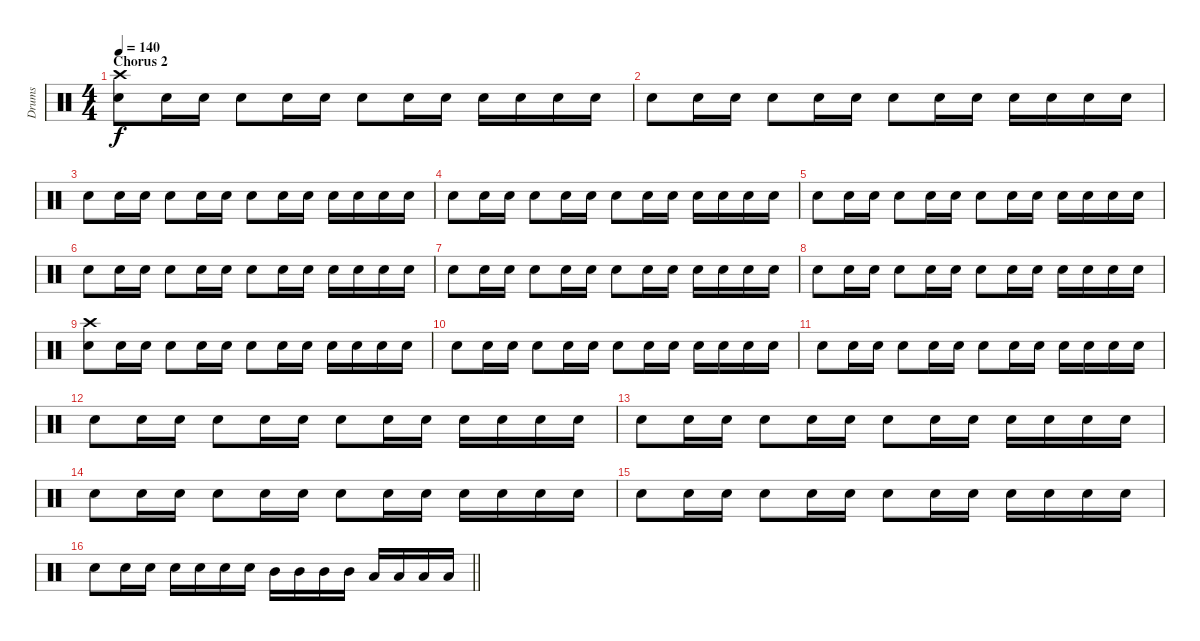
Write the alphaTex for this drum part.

\track ("Drums" "Drums") {instrument percussion}
\staff {score}
\articulation defaults
\ts (4 4)
\section ("" "Chorus 2")
\tempo 140
\clef neutral
\ks c
("Crash high (hit)" "Snare (hit) 2").8{dy f} "Snare (hit) 2".16 "Snare (hit) 2".16 "Snare (hit) 2".8 "Snare (hit) 2".16 "Snare (hit) 2".16 "Snare (hit) 2".8 "Snare (hit) 2".16 "Snare (hit) 2".16 "Snare (hit) 2".16 "Snare (hit) 2".16 "Snare (hit) 2".16 "Snare (hit) 2".16 |
"Snare (hit) 2".8 "Snare (hit) 2".16 "Snare (hit) 2".16 "Snare (hit) 2".8 "Snare (hit) 2".16 "Snare (hit) 2".16 "Snare (hit) 2".8 "Snare (hit) 2".16 "Snare (hit) 2".16 "Snare (hit) 2".16 "Snare (hit) 2".16 "Snare (hit) 2".16 "Snare (hit) 2".16 |
"Snare (hit) 2".8 "Snare (hit) 2".16 "Snare (hit) 2".16 "Snare (hit) 2".8 "Snare (hit) 2".16 "Snare (hit) 2".16 "Snare (hit) 2".8 "Snare (hit) 2".16 "Snare (hit) 2".16 "Snare (hit) 2".16 "Snare (hit) 2".16 "Snare (hit) 2".16 "Snare (hit) 2".16 |
"Snare (hit) 2".8 "Snare (hit) 2".16 "Snare (hit) 2".16 "Snare (hit) 2".8 "Snare (hit) 2".16 "Snare (hit) 2".16 "Snare (hit) 2".8 "Snare (hit) 2".16 "Snare (hit) 2".16 "Snare (hit) 2".16 "Snare (hit) 2".16 "Snare (hit) 2".16 "Snare (hit) 2".16 |
"Snare (hit) 2".8 "Snare (hit) 2".16 "Snare (hit) 2".16 "Snare (hit) 2".8 "Snare (hit) 2".16 "Snare (hit) 2".16 "Snare (hit) 2".8 "Snare (hit) 2".16 "Snare (hit) 2".16 "Snare (hit) 2".16 "Snare (hit) 2".16 "Snare (hit) 2".16 "Snare (hit) 2".16 |
"Snare (hit) 2".8 "Snare (hit) 2".16 "Snare (hit) 2".16 "Snare (hit) 2".8 "Snare (hit) 2".16 "Snare (hit) 2".16 "Snare (hit) 2".8 "Snare (hit) 2".16 "Snare (hit) 2".16 "Snare (hit) 2".16 "Snare (hit) 2".16 "Snare (hit) 2".16 "Snare (hit) 2".16 |
"Snare (hit) 2".8 "Snare (hit) 2".16 "Snare (hit) 2".16 "Snare (hit) 2".8 "Snare (hit) 2".16 "Snare (hit) 2".16 "Snare (hit) 2".8 "Snare (hit) 2".16 "Snare (hit) 2".16 "Snare (hit) 2".16 "Snare (hit) 2".16 "Snare (hit) 2".16 "Snare (hit) 2".16 |
"Snare (hit) 2".8 "Snare (hit) 2".16 "Snare (hit) 2".16 "Snare (hit) 2".8 "Snare (hit) 2".16 "Snare (hit) 2".16 "Snare (hit) 2".8 "Snare (hit) 2".16 "Snare (hit) 2".16 "Snare (hit) 2".16 "Snare (hit) 2".16 "Snare (hit) 2".16 "Snare (hit) 2".16 |
("Crash high (hit)" "Snare (hit) 2").8 "Snare (hit) 2".16 "Snare (hit) 2".16 "Snare (hit) 2".8 "Snare (hit) 2".16 "Snare (hit) 2".16 "Snare (hit) 2".8 "Snare (hit) 2".16 "Snare (hit) 2".16 "Snare (hit) 2".16 "Snare (hit) 2".16 "Snare (hit) 2".16 "Snare (hit) 2".16 |
"Snare (hit) 2".8 "Snare (hit) 2".16 "Snare (hit) 2".16 "Snare (hit) 2".8 "Snare (hit) 2".16 "Snare (hit) 2".16 "Snare (hit) 2".8 "Snare (hit) 2".16 "Snare (hit) 2".16 "Snare (hit) 2".16 "Snare (hit) 2".16 "Snare (hit) 2".16 "Snare (hit) 2".16 |
"Snare (hit) 2".8 "Snare (hit) 2".16 "Snare (hit) 2".16 "Snare (hit) 2".8 "Snare (hit) 2".16 "Snare (hit) 2".16 "Snare (hit) 2".8 "Snare (hit) 2".16 "Snare (hit) 2".16 "Snare (hit) 2".16 "Snare (hit) 2".16 "Snare (hit) 2".16 "Snare (hit) 2".16 |
"Snare (hit) 2".8 "Snare (hit) 2".16 "Snare (hit) 2".16 "Snare (hit) 2".8 "Snare (hit) 2".16 "Snare (hit) 2".16 "Snare (hit) 2".8 "Snare (hit) 2".16 "Snare (hit) 2".16 "Snare (hit) 2".16 "Snare (hit) 2".16 "Snare (hit) 2".16 "Snare (hit) 2".16 |
"Snare (hit) 2".8 "Snare (hit) 2".16 "Snare (hit) 2".16 "Snare (hit) 2".8 "Snare (hit) 2".16 "Snare (hit) 2".16 "Snare (hit) 2".8 "Snare (hit) 2".16 "Snare (hit) 2".16 "Snare (hit) 2".16 "Snare (hit) 2".16 "Snare (hit) 2".16 "Snare (hit) 2".16 |
"Snare (hit) 2".8 "Snare (hit) 2".16 "Snare (hit) 2".16 "Snare (hit) 2".8 "Snare (hit) 2".16 "Snare (hit) 2".16 "Snare (hit) 2".8 "Snare (hit) 2".16 "Snare (hit) 2".16 "Snare (hit) 2".16 "Snare (hit) 2".16 "Snare (hit) 2".16 "Snare (hit) 2".16 |
"Snare (hit) 2".8 "Snare (hit) 2".16 "Snare (hit) 2".16 "Snare (hit) 2".8 "Snare (hit) 2".16 "Snare (hit) 2".16 "Snare (hit) 2".8 "Snare (hit) 2".16 "Snare (hit) 2".16 "Snare (hit) 2".16 "Snare (hit) 2".16 "Snare (hit) 2".16 "Snare (hit) 2".16 |
\barLineRight lightlight "Snare (hit) 2".8 "Snare (hit) 2".16 "Snare (hit) 2".16 "Snare (hit) 2".16 "Snare (hit) 2".16 "Snare (hit) 2".16 "Snare (hit) 2".16 "Mid Tom (hit)".16 "Mid Tom (hit)".16 "Mid Tom (hit)".16 "Mid Tom (hit)".16 "Low Tom (hit)".16 "Low Tom (hit)".16 "Low Tom (hit)".16 "Low Tom (hit)".16
